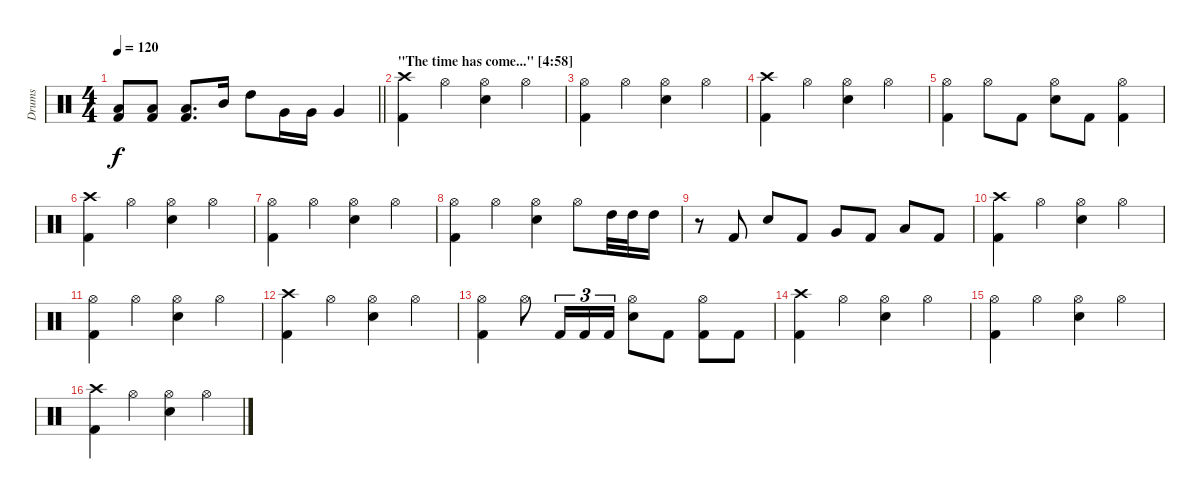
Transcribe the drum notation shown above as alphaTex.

\track ("Drums" "Drums") {instrument percussion}
\staff {score}
\articulation defaults
\ts (4 4)
\tempo 120
\clef neutral
\barLineRight lightlight
\ks c
("Low Tom (hit)" "Kick (hit) 2").8{dy f} ("Low Tom (hit)" "Kick (hit) 2").8 ("Low Tom (hit)" "Kick (hit) 2").8{d} "Mid Tom (hit)".16 "High Tom (hit)".8 "Very Low Tom (hit)".16 "Very Low Tom (hit)".16 "Very Low Tom (hit)".4 |
\section ("" "\"The time has come...\" [4:58]")
("Crash high (hit)" "Kick (hit) 2").4 "Hi-Hat (open)".4 ("Hi-Hat (open)" "Snare (hit) 2").4 "Hi-Hat (open)".4 |
("Hi-Hat (open)" "Kick (hit) 2").4 "Hi-Hat (open)".4 ("Hi-Hat (open)" "Snare (hit) 2").4 "Hi-Hat (open)".4 |
("Crash high (hit)" "Kick (hit) 2").4 "Hi-Hat (open)".4 ("Hi-Hat (open)" "Snare (hit) 2").4 "Hi-Hat (open)".4 |
("Hi-Hat (open)" "Kick (hit) 2").4 "Hi-Hat (open)".8 "Kick (hit) 2".8 ("Hi-Hat (open)" "Snare (hit) 2").8 "Kick (hit) 2".8 ("Hi-Hat (open)" "Kick (hit) 2").4 |
("Crash high (hit)" "Kick (hit) 2").4 "Hi-Hat (open)".4 ("Hi-Hat (open)" "Snare (hit) 2").4 "Hi-Hat (open)".4 |
("Hi-Hat (open)" "Kick (hit) 2").4 "Hi-Hat (open)".4 ("Hi-Hat (open)" "Snare (hit) 2").4 "Hi-Hat (open)".4 |
("Hi-Hat (open)" "Kick (hit) 2").4 "Hi-Hat (open)".4 ("Hi-Hat (open)" "Snare (hit) 2").4 "Hi-Hat (open)".8 "High Tom (hit)".32 "High Tom (hit)".32 "High Tom (hit)".16 |
r.8 "Kick (hit) 2".8 "Snare (hit) 2".8 "Kick (hit) 2".8 "Very Low Tom (hit)".8 "Kick (hit) 2".8 "Low Floor Tom (hit)".8 "Kick (hit) 2".8 |
("Crash high (hit)" "Kick (hit) 2").4 "Hi-Hat (open)".4 ("Hi-Hat (open)" "Snare (hit) 2").4 "Hi-Hat (open)".4 |
("Hi-Hat (open)" "Kick (hit) 2").4 "Hi-Hat (open)".4 ("Hi-Hat (open)" "Snare (hit) 2").4 "Hi-Hat (open)".4 |
("Crash high (hit)" "Kick (hit) 2").4 "Hi-Hat (open)".4 ("Hi-Hat (open)" "Snare (hit) 2").4 "Hi-Hat (open)".4 |
("Hi-Hat (open)" "Kick (hit) 2").4 "Hi-Hat (open)".8 "Kick (hit) 2".16{tu (3 2)} "Kick (hit) 2".16{tu (3 2)} "Kick (hit) 2".16{tu (3 2)} ("Hi-Hat (open)" "Snare (hit) 2").8 "Kick (hit) 2".8 ("Hi-Hat (open)" "Kick (hit) 2").8 "Kick (hit) 2".8 |
("Crash high (hit)" "Kick (hit) 2").4 "Hi-Hat (open)".4 ("Hi-Hat (open)" "Snare (hit) 2").4 "Hi-Hat (open)".4 |
("Hi-Hat (open)" "Kick (hit) 2").4 "Hi-Hat (open)".4 ("Hi-Hat (open)" "Snare (hit) 2").4 "Hi-Hat (open)".4 |
("Crash high (hit)" "Kick (hit) 2").4 "Hi-Hat (open)".4 ("Hi-Hat (open)" "Snare (hit) 2").4 "Hi-Hat (open)".4
